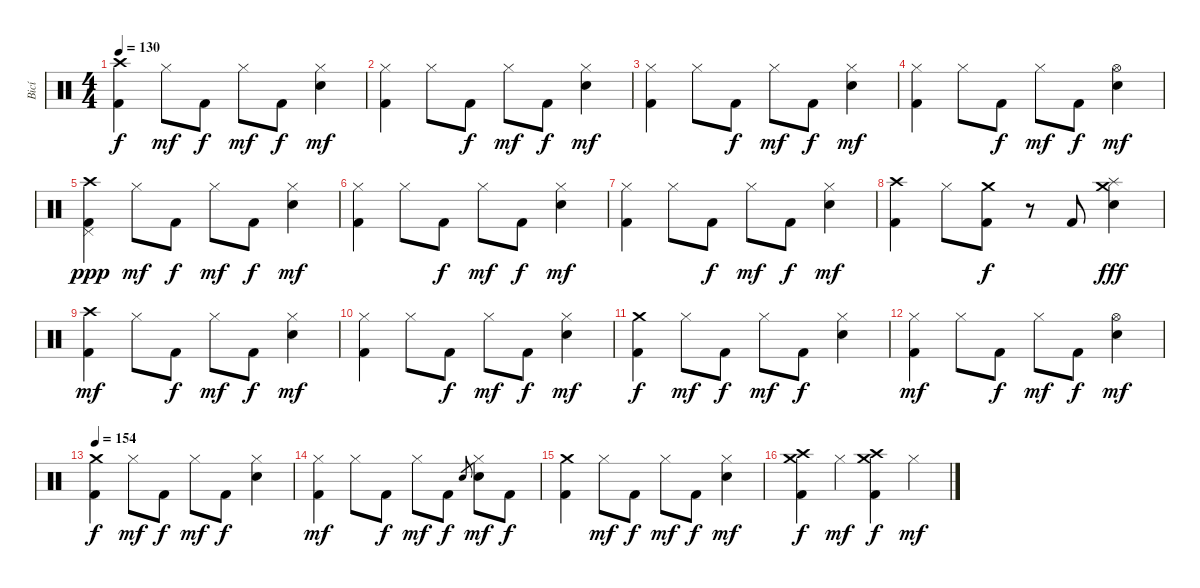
\track ("Bicí" "Bicí") {instrument percussion}
\staff {score}
\articulation defaults
\ts (4 4)
\tempo 130
\clef neutral
\ks c
("Crash high (hit)" "Kick (hit) 2").4{dy f} "Hi-Hat (closed)".8{dy mf} "Kick (hit) 2".8{dy f} "Hi-Hat (closed)".8{dy mf} "Kick (hit) 2".8{dy f} ("Hi-Hat (closed)" "Electric Snare (hit)").4{dy mf} |
("Hi-Hat (closed)" "Kick (hit) 2").4 "Hi-Hat (closed)".8 "Kick (hit) 2".8{dy f} "Hi-Hat (closed)".8{dy mf} "Kick (hit) 2".8{dy f} ("Hi-Hat (closed)" "Electric Snare (hit)").4{dy mf} |
("Hi-Hat (closed)" "Kick (hit) 2").4 "Hi-Hat (closed)".8 "Kick (hit) 2".8{dy f} "Hi-Hat (closed)".8{dy mf} "Kick (hit) 2".8{dy f} ("Hi-Hat (closed)" "Electric Snare (hit)").4{dy mf} |
("Hi-Hat (closed)" "Kick (hit) 2").4 "Hi-Hat (closed)".8 "Kick (hit) 2".8{dy f} "Hi-Hat (closed)".8{dy mf} "Kick (hit) 2".8{dy f} ("Hi-Hat (open)" "Electric Snare (hit)").4{dy mf} |
("Crash high (hit)" "Kick (hit) 2" "Pedal Hi-Hat (hit)").4{dy ppp} "Hi-Hat (closed)".8{dy mf} "Kick (hit) 2".8{dy f} "Hi-Hat (closed)".8{dy mf} "Kick (hit) 2".8{dy f} ("Hi-Hat (closed)" "Electric Snare (hit)").4{dy mf} |
("Hi-Hat (closed)" "Kick (hit) 2").4 "Hi-Hat (closed)".8 "Kick (hit) 2".8{dy f} "Hi-Hat (closed)".8{dy mf} "Kick (hit) 2".8{dy f} ("Hi-Hat (closed)" "Electric Snare (hit)").4{dy mf} |
("Hi-Hat (closed)" "Kick (hit) 2").4 "Hi-Hat (closed)".8 "Kick (hit) 2".8{dy f} "Hi-Hat (closed)".8{dy mf} "Kick (hit) 2".8{dy f} ("Hi-Hat (closed)" "Electric Snare (hit)").4{dy mf} |
("Crash high (hit)" "Kick (hit) 2").4 "Hi-Hat (closed)".8 ("Crash medium (hit)" "Kick (hit) 2").8{dy f} r.8 "Kick (hit) 2".8 ("Crash medium (hit)" "Electric Snare (hit)" "Splash (hit)").4{dy fff} |
("Crash high (hit)" "Kick (hit) 2").4{dy mf} "Hi-Hat (closed)".8 "Kick (hit) 2".8{dy f} "Hi-Hat (closed)".8{dy mf} "Kick (hit) 2".8{dy f} ("Hi-Hat (closed)" "Electric Snare (hit)").4{dy mf} |
("Hi-Hat (closed)" "Kick (hit) 2").4 "Hi-Hat (closed)".8 "Kick (hit) 2".8{dy f} "Hi-Hat (closed)".8{dy mf} "Kick (hit) 2".8{dy f} ("Hi-Hat (closed)" "Electric Snare (hit)").4{dy mf} |
("Crash medium (hit)" "Kick (hit) 2").4{dy f} "Hi-Hat (closed)".8{dy mf} "Kick (hit) 2".8{dy f} "Hi-Hat (closed)".8{dy mf} "Kick (hit) 2".8{dy f} ("Hi-Hat (closed)" "Electric Snare (hit)").4 |
("Hi-Hat (closed)" "Kick (hit) 2").4{dy mf} "Hi-Hat (closed)".8 "Kick (hit) 2".8{dy f} "Hi-Hat (closed)".8{dy mf} "Kick (hit) 2".8{dy f} ("Hi-Hat (open)" "Electric Snare (hit)").4{dy mf} |
\tempo 154
("Crash medium (hit)" "Kick (hit) 2").4{dy f} "Hi-Hat (closed)".8{dy mf} "Kick (hit) 2".8{dy f} "Hi-Hat (closed)".8{dy mf} "Kick (hit) 2".8{dy f} ("Hi-Hat (closed)" "Electric Snare (hit)").4 |
("Hi-Hat (closed)" "Kick (hit) 2").4{dy mf} "Hi-Hat (closed)".8 "Kick (hit) 2".8{dy f} "Hi-Hat (closed)".8{dy mf} "Kick (hit) 2".8{dy f} "Snare (hit) 2".8{gr} ("Hi-Hat (closed)" "Electric Snare (hit)").8{dy mf} "Kick (hit) 2".8{dy f} |
("Crash medium (hit)" "Kick (hit) 2").4 "Hi-Hat (closed)".8{dy mf} "Kick (hit) 2".8{dy f} "Hi-Hat (closed)".8{dy mf} "Kick (hit) 2".8{dy f} ("Hi-Hat (closed)" "Electric Snare (hit)").4{dy mf} |
("Crash high (hit)" "Kick (hit) 2" "Crash medium (hit)").4{dy f} "Hi-Hat (closed)".4{dy mf} ("Crash medium (hit)" "Kick (hit) 2" "Crash high (hit)").4{dy f} "Hi-Hat (closed)".4{dy mf}
